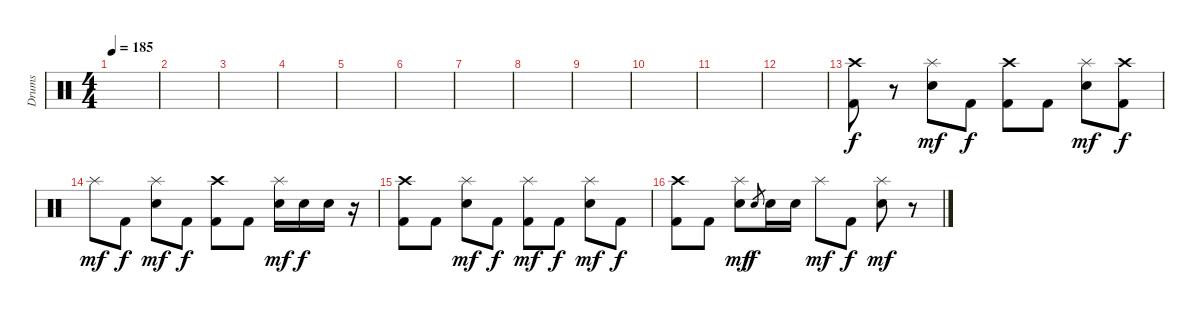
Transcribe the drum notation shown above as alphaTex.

\track ("Drums" "Drums") {instrument percussion}
\staff {score}
\articulation defaults
\ts (4 4)
\tempo 185
\clef neutral
\ks c
|
|
|
|
|
|
|
|
|
|
|
|
("Crash high (hit)" "Kick (hit) 2").8 r.8 ("Splash (hit)" "Electric Snare (hit)").8{dy mf} "Kick (hit) 2".8{dy f} ("Crash high (hit)" "Kick (hit) 2").8 "Kick (hit) 2".8 ("Splash (hit)" "Electric Snare (hit)").8{dy mf} ("Crash high (hit)" "Kick (hit) 2").8{dy f} |
"Splash (hit)".8{dy mf} "Kick (hit) 2".8{dy f} ("Splash (hit)" "Electric Snare (hit)").8{dy mf} "Kick (hit) 2".8{dy f} ("Crash high (hit)" "Kick (hit) 2").8 "Kick (hit) 2".8 ("Splash (hit)" "Electric Snare (hit)").16{dy mf} "Electric Snare (hit)".16{dy f} "Electric Snare (hit)".16 r.16 |
("Crash high (hit)" "Kick (hit) 2").8 "Kick (hit) 2".8 ("Splash (hit)" "Electric Snare (hit)").8{dy mf} "Kick (hit) 2".8{dy f} ("Splash (hit)" "Kick (hit) 2").8{dy mf} "Kick (hit) 2".8{dy f} ("Splash (hit)" "Electric Snare (hit)").8{dy mf} "Kick (hit) 2".8{dy f} |
("Crash high (hit)" "Kick (hit) 2").8 "Kick (hit) 2".8 ("Splash (hit)" "Electric Snare (hit)").8{dy mf} "Electric Snare (hit)".8{gr dy f} "Electric Snare (hit)".16 "Electric Snare (hit)".16 "Splash (hit)".8{dy mf} "Kick (hit) 2".8{dy f} ("Splash (hit)" "Electric Snare (hit)").8{dy mf} r.8
